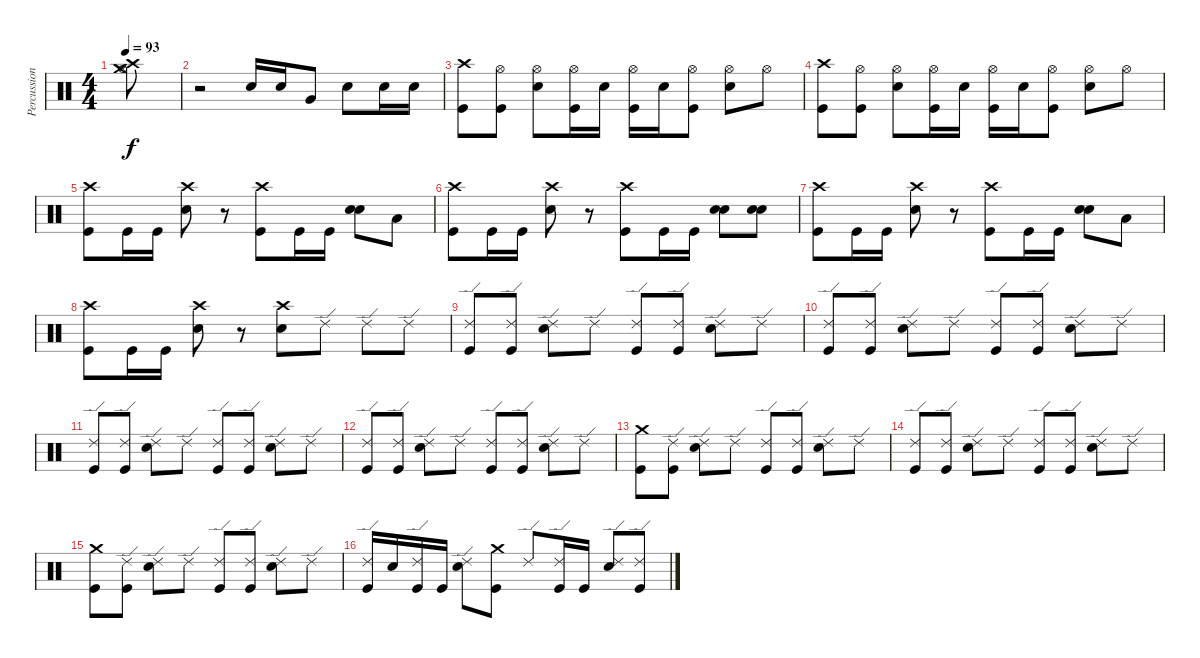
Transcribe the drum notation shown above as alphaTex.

\track ("Percussions" "Percussion") {instrument percussion}
\staff {score}
\articulation defaults
\ts (4 4)
\tempo 93
\clef neutral
\ks c
("Crash high (hit)" "Crash medium (hit)" "Hi-Hat (open)").8{dy f} |
r.2 "Electric Snare (hit)".16 "Electric Snare (hit)".16 "Very Low Tom (hit)".8 "Electric Snare (hit)".8 "Electric Snare (hit)".16 "Electric Snare (hit)".16 |
("Crash high (hit)" "Kick (hit)").8 ("Hi-Hat (open)" "Kick (hit)").8 ("Hi-Hat (open)" "Electric Snare (hit)").8 ("Hi-Hat (open)" "Kick (hit)").16 "Electric Snare (hit)".16 ("Hi-Hat (open)" "Kick (hit)").16 "Electric Snare (hit)".16 ("Hi-Hat (open)" "Kick (hit)").8 ("Hi-Hat (open)" "Electric Snare (hit)").8 "Hi-Hat (open)".8 |
("Crash high (hit)" "Kick (hit)").8 ("Hi-Hat (open)" "Kick (hit)").8 ("Hi-Hat (open)" "Electric Snare (hit)").8 ("Hi-Hat (open)" "Kick (hit)").16 "Electric Snare (hit)".16 ("Hi-Hat (open)" "Kick (hit)").16 "Electric Snare (hit)".16 ("Hi-Hat (open)" "Kick (hit)").8 ("Hi-Hat (open)" "Electric Snare (hit)").8 "Hi-Hat (open)".8 |
("Crash high (hit)" "Kick (hit)").8 "Kick (hit)".16 "Kick (hit)".16 ("Crash high (hit)" "Electric Snare (hit)").8 r.8 ("Crash high (hit)" "Kick (hit)").8 "Kick (hit)".16 "Kick (hit)".16 ("Snare (hit) 2" "Electric Snare (hit)").8 "Low Floor Tom (hit)".8 |
("Crash high (hit)" "Kick (hit)").8 "Kick (hit)".16 "Kick (hit)".16 ("Crash high (hit)" "Electric Snare (hit)").8 r.8 ("Crash high (hit)" "Kick (hit)").8 "Kick (hit)".16 "Kick (hit)".16 ("Snare (hit) 2" "Electric Snare (hit)").8 ("Snare (hit) 2" "Electric Snare (hit)").8 |
("Crash high (hit)" "Kick (hit)").8 "Kick (hit)".16 "Kick (hit)".16 ("Crash high (hit)" "Electric Snare (hit)").8 r.8 ("Crash high (hit)" "Kick (hit)").8 "Kick (hit)".16 "Kick (hit)".16 ("Snare (hit) 2" "Electric Snare (hit)").8 "Low Floor Tom (hit)".8 |
("Crash high (hit)" "Kick (hit)").8 "Kick (hit)".16 "Kick (hit)".16 ("Crash high (hit)" "Electric Snare (hit)").8 r.8 ("Crash high (hit)" "Electric Snare (hit)").8{volume 7} "Ride (edge) 2".8 "Ride (edge) 2".8 "Ride (edge) 2".8 |
("Ride (edge) 2" "Kick (hit)").8 ("Ride (edge) 2" "Kick (hit)").8 ("Ride (edge) 2" "Electric Snare (hit)").8 "Ride (edge) 2".8 ("Ride (edge) 2" "Kick (hit)").8 ("Ride (edge) 2" "Kick (hit)").8 ("Ride (edge) 2" "Electric Snare (hit)").8 "Ride (edge) 2".8 |
("Ride (edge) 2" "Kick (hit)").8 ("Ride (edge) 2" "Kick (hit)").8 ("Ride (edge) 2" "Electric Snare (hit)").8 "Ride (edge) 2".8 ("Ride (edge) 2" "Kick (hit)").8 ("Ride (edge) 2" "Kick (hit)").8 ("Ride (edge) 2" "Electric Snare (hit)").8 "Ride (edge) 2".8 |
("Ride (edge) 2" "Kick (hit)").8 ("Ride (edge) 2" "Kick (hit)").8 ("Ride (edge) 2" "Electric Snare (hit)").8 "Ride (edge) 2".8 ("Ride (edge) 2" "Kick (hit)").8 ("Ride (edge) 2" "Kick (hit)").8 ("Ride (edge) 2" "Electric Snare (hit)").8 "Ride (edge) 2".8 |
("Ride (edge) 2" "Kick (hit)").8 ("Ride (edge) 2" "Kick (hit)").8 ("Ride (edge) 2" "Electric Snare (hit)").8 "Ride (edge) 2".8 ("Ride (edge) 2" "Kick (hit)").8 ("Ride (edge) 2" "Kick (hit)").8 ("Ride (edge) 2" "Electric Snare (hit)").8 "Ride (edge) 2".8 |
("Crash medium (hit)" "Kick (hit)").8 ("Ride (edge) 2" "Kick (hit)").8 ("Ride (edge) 2" "Electric Snare (hit)").8 "Ride (edge) 2".8 ("Ride (edge) 2" "Kick (hit)").8 ("Ride (edge) 2" "Kick (hit)").8 ("Ride (edge) 2" "Electric Snare (hit)").8 "Ride (edge) 2".8 |
("Ride (edge) 2" "Kick (hit)").8 ("Ride (edge) 2" "Kick (hit)").8 ("Ride (edge) 2" "Electric Snare (hit)").8 "Ride (edge) 2".8 ("Ride (edge) 2" "Kick (hit)").8 ("Ride (edge) 2" "Kick (hit)").8 ("Ride (edge) 2" "Electric Snare (hit)").8 "Ride (edge) 2".8 |
("Crash medium (hit)" "Kick (hit)").8 ("Ride (edge) 2" "Kick (hit)").8 ("Ride (edge) 2" "Electric Snare (hit)").8 "Ride (edge) 2".8 ("Ride (edge) 2" "Kick (hit)").8 ("Ride (edge) 2" "Kick (hit)").8 ("Ride (edge) 2" "Electric Snare (hit)").8 "Ride (edge) 2".8 |
("Ride (edge) 2" "Kick (hit)").16 "Electric Snare (hit)".16 ("Ride (edge) 2" "Kick (hit)").16 "Kick (hit)".16 ("Ride (edge) 2" "Electric Snare (hit)").8 ("Crash medium (hit)" "Kick (hit)").8 "Ride (edge) 2".8 ("Ride (edge) 2" "Kick (hit)").16 "Kick (hit)".16 ("Ride (edge) 2" "Electric Snare (hit)").8 ("Ride (edge) 2" "Kick (hit)").8
